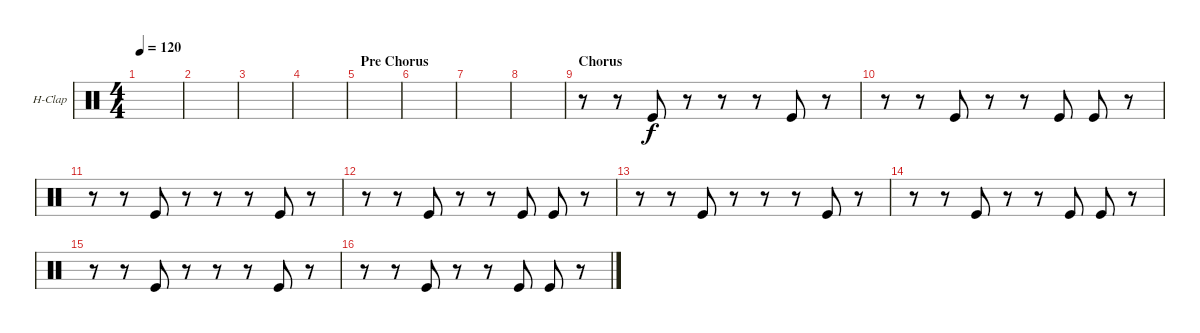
\defaultSystemsLayout 4
\bracketExtendMode groupsimilarinstruments
\firstSystemTrackNameOrientation horizontal
\otherSystemsTrackNameOrientation horizontal
\track ("Hand Clap" "H-Clap") {instrument percussion}
\staff {score}
\articulation defaults
\ts (4 4)
\tempo 120
\clef neutral
\scale
0.333333
\ks c
|
\scale
0.333333 |
\scale
0.333333 |
\scale
0.333333 |
\section ("" "Pre Chorus")
\scale
0.333333 |
|
|
|
\section ("" "Chorus")
r.8 r.8 "Kick (hit)".8 r.8 r.8 r.8 "Kick (hit)".8 r.8 |
r.8 r.8 "Kick (hit)".8 r.8 r.8 "Kick (hit)".8 "Kick (hit)".8 r.8 |
r.8 r.8 "Kick (hit)".8 r.8 r.8 r.8 "Kick (hit)".8 r.8 |
r.8 r.8 "Kick (hit)".8 r.8 r.8 "Kick (hit)".8 "Kick (hit)".8 r.8 |
r.8 r.8 "Kick (hit)".8 r.8 r.8 r.8 "Kick (hit)".8 r.8 |
r.8 r.8 "Kick (hit)".8 r.8 r.8 "Kick (hit)".8 "Kick (hit)".8 r.8 |
r.8 r.8 "Kick (hit)".8 r.8 r.8 r.8 "Kick (hit)".8 r.8 |
r.8 r.8 "Kick (hit)".8 r.8 r.8 "Kick (hit)".8 "Kick (hit)".8 r.8
